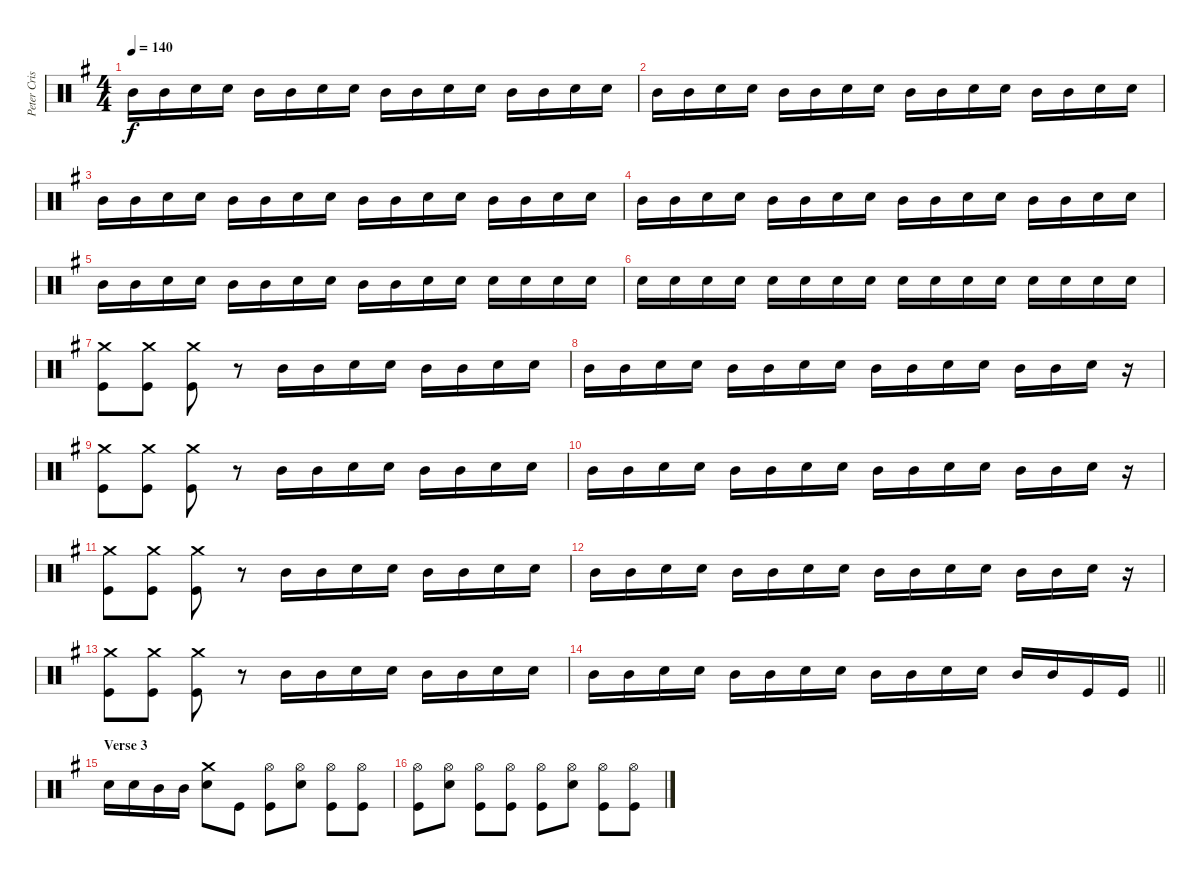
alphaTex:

\track ("Peter Criss" "Peter Cris") {instrument percussion}
\staff {score}
\articulation defaults
\ts (4 4)
\tempo 140
\clef neutral
\ks g "Mid Tom (hit)".16{dy f} "Mid Tom (hit)".16 "Snare (hit) 2".16 "Snare (hit) 2".16 "Mid Tom (hit)".16 "Mid Tom (hit)".16 "Snare (hit) 2".16 "Snare (hit) 2".16 "Mid Tom (hit)".16 "Mid Tom (hit)".16 "Snare (hit) 2".16 "Snare (hit) 2".16 "Mid Tom (hit)".16 "Mid Tom (hit)".16 "Snare (hit) 2".16 "Snare (hit) 2".16
|
"Mid Tom (hit)".16 "Mid Tom (hit)".16 "Snare (hit) 2".16 "Snare (hit) 2".16 "Mid Tom (hit)".16 "Mid Tom (hit)".16 "Snare (hit) 2".16 "Snare (hit) 2".16 "Mid Tom (hit)".16 "Mid Tom (hit)".16 "Snare (hit) 2".16 "Snare (hit) 2".16 "Mid Tom (hit)".16 "Mid Tom (hit)".16 "Snare (hit) 2".16 "Snare (hit) 2".16 |
"Mid Tom (hit)".16 "Mid Tom (hit)".16 "Snare (hit) 2".16 "Snare (hit) 2".16 "Mid Tom (hit)".16 "Mid Tom (hit)".16 "Snare (hit) 2".16 "Snare (hit) 2".16 "Mid Tom (hit)".16 "Mid Tom (hit)".16 "Snare (hit) 2".16 "Snare (hit) 2".16 "Mid Tom (hit)".16 "Mid Tom (hit)".16 "Snare (hit) 2".16 "Snare (hit) 2".16 |
"Mid Tom (hit)".16 "Mid Tom (hit)".16 "Snare (hit) 2".16 "Snare (hit) 2".16 "Mid Tom (hit)".16 "Mid Tom (hit)".16 "Snare (hit) 2".16 "Snare (hit) 2".16 "Mid Tom (hit)".16 "Mid Tom (hit)".16 "Snare (hit) 2".16 "Snare (hit) 2".16 "Mid Tom (hit)".16 "Mid Tom (hit)".16 "Snare (hit) 2".16 "Snare (hit) 2".16 |
"Mid Tom (hit)".16 "Mid Tom (hit)".16 "Snare (hit) 2".16 "Snare (hit) 2".16 "Mid Tom (hit)".16 "Mid Tom (hit)".16 "Snare (hit) 2".16 "Snare (hit) 2".16 "Mid Tom (hit)".16 "Mid Tom (hit)".16 "Snare (hit) 2".16 "Snare (hit) 2".16 "Snare (hit) 2".16 "Snare (hit) 2".16 "Snare (hit) 2".16 "Snare (hit) 2".16 |
"Snare (hit) 2".16 "Snare (hit) 2".16 "Snare (hit) 2".16 "Snare (hit) 2".16 "Snare (hit) 2".16 "Snare (hit) 2".16 "Snare (hit) 2".16 "Snare (hit) 2".16 "Snare (hit) 2".16 "Snare (hit) 2".16 "Snare (hit) 2".16 "Snare (hit) 2".16 "Snare (hit) 2".16 "Snare (hit) 2".16 "Snare (hit) 2".16 "Snare (hit) 2".16 |
("Crash medium (hit)" "Kick (hit)").8 ("Crash medium (hit)" "Kick (hit)").8 ("Crash medium (hit)" "Kick (hit)").8 r.8 "Mid Tom (hit)".16 "Mid Tom (hit)".16 "Snare (hit) 2".16 "Snare (hit) 2".16 "Mid Tom (hit)".16 "Mid Tom (hit)".16 "Snare (hit) 2".16 "Snare (hit) 2".16 |
"Mid Tom (hit)".16 "Mid Tom (hit)".16 "Snare (hit) 2".16 "Snare (hit) 2".16 "Mid Tom (hit)".16 "Mid Tom (hit)".16 "Snare (hit) 2".16 "Snare (hit) 2".16 "Mid Tom (hit)".16 "Mid Tom (hit)".16 "Snare (hit) 2".16 "Snare (hit) 2".16 "Mid Tom (hit)".16 "Mid Tom (hit)".16 "Snare (hit) 2".16 r.16 |
("Crash medium (hit)" "Kick (hit)").8 ("Crash medium (hit)" "Kick (hit)").8 ("Crash medium (hit)" "Kick (hit)").8 r.8 "Mid Tom (hit)".16 "Mid Tom (hit)".16 "Snare (hit) 2".16 "Snare (hit) 2".16 "Mid Tom (hit)".16 "Mid Tom (hit)".16 "Snare (hit) 2".16 "Snare (hit) 2".16 |
"Mid Tom (hit)".16 "Mid Tom (hit)".16 "Snare (hit) 2".16 "Snare (hit) 2".16 "Mid Tom (hit)".16 "Mid Tom (hit)".16 "Snare (hit) 2".16 "Snare (hit) 2".16 "Mid Tom (hit)".16 "Mid Tom (hit)".16 "Snare (hit) 2".16 "Snare (hit) 2".16 "Mid Tom (hit)".16 "Mid Tom (hit)".16 "Snare (hit) 2".16 r.16 |
("Crash medium (hit)" "Kick (hit)").8 ("Crash medium (hit)" "Kick (hit)").8 ("Crash medium (hit)" "Kick (hit)").8 r.8 "Mid Tom (hit)".16 "Mid Tom (hit)".16 "Snare (hit) 2".16 "Snare (hit) 2".16 "Mid Tom (hit)".16 "Mid Tom (hit)".16 "Snare (hit) 2".16 "Snare (hit) 2".16 |
"Mid Tom (hit)".16 "Mid Tom (hit)".16 "Snare (hit) 2".16 "Snare (hit) 2".16 "Mid Tom (hit)".16 "Mid Tom (hit)".16 "Snare (hit) 2".16 "Snare (hit) 2".16 "Mid Tom (hit)".16 "Mid Tom (hit)".16 "Snare (hit) 2".16 "Snare (hit) 2".16 "Mid Tom (hit)".16 "Mid Tom (hit)".16 "Snare (hit) 2".16 r.16 |
("Crash medium (hit)" "Kick (hit)").8 ("Crash medium (hit)" "Kick (hit)").8 ("Crash medium (hit)" "Kick (hit)").8 r.8 "Mid Tom (hit)".16 "Mid Tom (hit)".16 "Snare (hit) 2".16 "Snare (hit) 2".16 "Mid Tom (hit)".16 "Mid Tom (hit)".16 "Snare (hit) 2".16 "Snare (hit) 2".16 |
\barLineRight lightlight "Mid Tom (hit)".16 "Mid Tom (hit)".16 "Snare (hit) 2".16 "Snare (hit) 2".16 "Mid Tom (hit)".16 "Mid Tom (hit)".16 "Snare (hit) 2".16 "Snare (hit) 2".16 "Mid Tom (hit)".16 "Mid Tom (hit)".16 "Snare (hit) 2".16 "Snare (hit) 2".16 "Mid Tom (hit)".16 "Mid Tom (hit)".16 "Kick (hit)".16 "Kick (hit)".16
|
\section ("" "Verse 3")
"Snare (hit) 2".16 "Snare (hit) 2".16 "Mid Tom (hit)".16 "Mid Tom (hit)".16 ("Crash medium (hit)" "Snare (hit) 2").8 "Kick (hit)".8 ("Hi-Hat (open)" "Kick (hit)").8 ("Hi-Hat (open)" "Snare (hit) 2").8 ("Hi-Hat (open)" "Kick (hit)").8 ("Hi-Hat (open)" "Kick (hit)").8 |
("Hi-Hat (open)" "Kick (hit)").8 ("Hi-Hat (open)" "Snare (hit) 2").8 ("Hi-Hat (open)" "Kick (hit)").8 ("Hi-Hat (open)" "Kick (hit)").8 ("Hi-Hat (open)" "Kick (hit)").8 ("Hi-Hat (open)" "Snare (hit) 2").8 ("Hi-Hat (open)" "Kick (hit)").8 ("Hi-Hat (open)" "Kick (hit)").8
